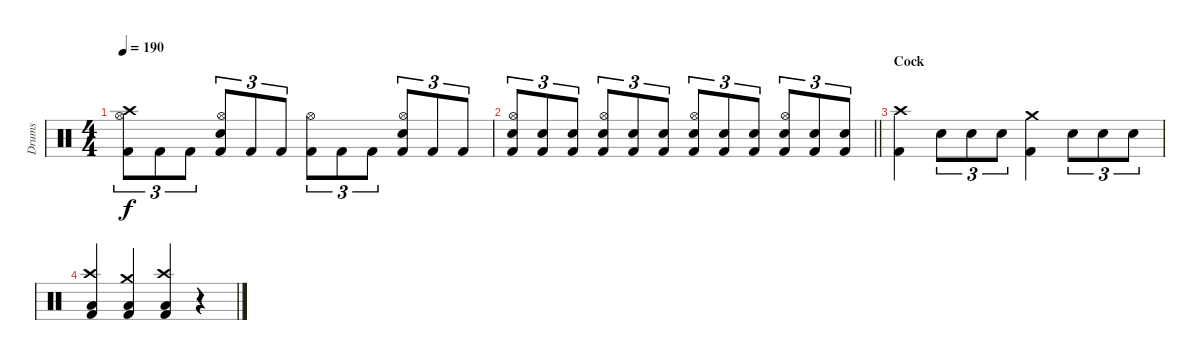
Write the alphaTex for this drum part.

\track ("Drums" "Drums") {instrument percussion}
\staff {score}
\articulation defaults
\ts (4 4)
\tempo 190
\clef neutral
\ks c
("Kick (hit) 2" "Hi-Hat (open)" "Crash high (hit)").8{tu (3 2) dy f} "Kick (hit) 2".8{tu (3 2)} "Kick (hit) 2".8{tu (3 2)} ("Kick (hit) 2" "Snare (hit) 2" "Hi-Hat (open)").8{tu (3 2)} "Kick (hit) 2".8{tu (3 2)} "Kick (hit) 2".8{tu (3 2)} ("Kick (hit) 2" "Hi-Hat (open)").8{tu (3 2)} "Kick (hit) 2".8{tu (3 2)} "Kick (hit) 2".8{tu (3 2)} ("Kick (hit) 2" "Snare (hit) 2" "Hi-Hat (open)").8{tu (3 2)} "Kick (hit) 2".8{tu (3 2)} "Kick (hit) 2".8{tu (3 2)} |
\barLineRight lightlight
("Kick (hit) 2" "Snare (hit) 2" "Hi-Hat (open)").8{tu (3 2)} ("Kick (hit) 2" "Snare (hit) 2").8{tu (3 2)} ("Kick (hit) 2" "Snare (hit) 2").8{tu (3 2)} ("Kick (hit) 2" "Snare (hit) 2" "Hi-Hat (open)").8{tu (3 2)} ("Kick (hit) 2" "Snare (hit) 2").8{tu (3 2)} ("Kick (hit) 2" "Snare (hit) 2").8{tu (3 2)} ("Kick (hit) 2" "Snare (hit) 2" "Hi-Hat (open)").8{tu (3 2)} ("Kick (hit) 2" "Snare (hit) 2").8{tu (3 2)} ("Kick (hit) 2" "Snare (hit) 2").8{tu (3 2)} ("Kick (hit) 2" "Snare (hit) 2" "Hi-Hat (open)").8{tu (3 2)} ("Kick (hit) 2" "Snare (hit) 2").8{tu (3 2)} ("Kick (hit) 2" "Snare (hit) 2").8{tu (3 2)} |
\section ("" "Cock")
("Kick (hit) 2" "Crash high (hit)").4 "Snare (hit) 2".8{tu (3 2)} "Snare (hit) 2".8{tu (3 2)} "Snare (hit) 2".8{tu (3 2)} ("Kick (hit) 2" "Crash medium (hit)").4 "Snare (hit) 2".8{tu (3 2)} "Snare (hit) 2".8{tu (3 2)} "Snare (hit) 2".8{tu (3 2)} |
("Kick (hit) 2" "Low Floor Tom (hit)" "Crash high (hit)").4 ("Kick (hit) 2" "Low Floor Tom (hit)" "Crash medium (hit)").4 ("Kick (hit) 2" "Low Floor Tom (hit)" "Crash high (hit)").4 r.4
